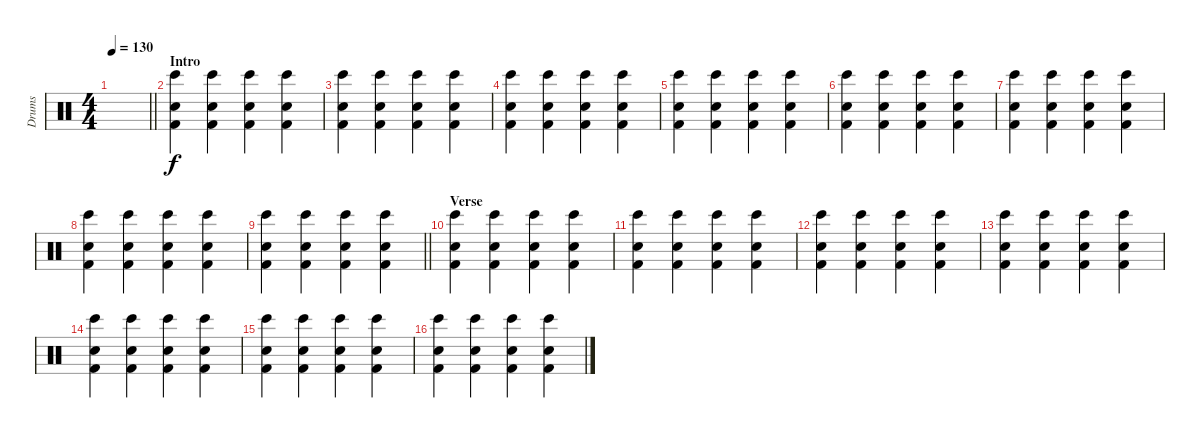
\track ("Drums" "Drums") {instrument percussion}
\staff {score}
\articulation defaults
\ts (4 4)
\tempo 130
\clef neutral
\barLineRight lightlight
\ks c
|
\section ("" "Intro")
("Electric Snare (hit)" "Kick (hit) 2" "Bongo High (hit)").4 ("Electric Snare (hit)" "Kick (hit) 2" "Bongo High (hit)").4 ("Electric Snare (hit)" "Kick (hit) 2" "Bongo High (hit)").4 ("Electric Snare (hit)" "Kick (hit) 2" "Bongo High (hit)").4 |
("Electric Snare (hit)" "Kick (hit) 2" "Bongo High (hit)").4 ("Electric Snare (hit)" "Kick (hit) 2" "Bongo High (hit)").4 ("Electric Snare (hit)" "Kick (hit) 2" "Bongo High (hit)").4 ("Electric Snare (hit)" "Kick (hit) 2" "Bongo High (hit)").4 |
("Electric Snare (hit)" "Kick (hit) 2" "Bongo High (hit)").4 ("Electric Snare (hit)" "Kick (hit) 2" "Bongo High (hit)").4 ("Electric Snare (hit)" "Kick (hit) 2" "Bongo High (hit)").4 ("Electric Snare (hit)" "Kick (hit) 2" "Bongo High (hit)").4 |
("Electric Snare (hit)" "Kick (hit) 2" "Bongo High (hit)").4 ("Electric Snare (hit)" "Kick (hit) 2" "Bongo High (hit)").4 ("Electric Snare (hit)" "Kick (hit) 2" "Bongo High (hit)").4 ("Electric Snare (hit)" "Kick (hit) 2" "Bongo High (hit)").4 |
("Electric Snare (hit)" "Kick (hit) 2" "Bongo High (hit)").4 ("Electric Snare (hit)" "Kick (hit) 2" "Bongo High (hit)").4 ("Electric Snare (hit)" "Kick (hit) 2" "Bongo High (hit)").4 ("Electric Snare (hit)" "Kick (hit) 2" "Bongo High (hit)").4 |
("Electric Snare (hit)" "Kick (hit) 2" "Bongo High (hit)").4 ("Electric Snare (hit)" "Kick (hit) 2" "Bongo High (hit)").4 ("Electric Snare (hit)" "Kick (hit) 2" "Bongo High (hit)").4 ("Electric Snare (hit)" "Kick (hit) 2" "Bongo High (hit)").4 |
("Electric Snare (hit)" "Kick (hit) 2" "Bongo High (hit)").4 ("Electric Snare (hit)" "Kick (hit) 2" "Bongo High (hit)").4 ("Electric Snare (hit)" "Kick (hit) 2" "Bongo High (hit)").4 ("Electric Snare (hit)" "Kick (hit) 2" "Bongo High (hit)").4 |
\barLineRight lightlight
("Electric Snare (hit)" "Kick (hit) 2" "Bongo High (hit)").4 ("Electric Snare (hit)" "Kick (hit) 2" "Bongo High (hit)").4 ("Electric Snare (hit)" "Kick (hit) 2" "Bongo High (hit)").4 ("Electric Snare (hit)" "Kick (hit) 2" "Bongo High (hit)").4 |
\section ("" "Verse")
("Electric Snare (hit)" "Kick (hit) 2" "Bongo High (hit)").4 ("Electric Snare (hit)" "Kick (hit) 2" "Bongo High (hit)").4 ("Electric Snare (hit)" "Kick (hit) 2" "Bongo High (hit)").4 ("Electric Snare (hit)" "Kick (hit) 2" "Bongo High (hit)").4 |
("Electric Snare (hit)" "Kick (hit) 2" "Bongo High (hit)").4 ("Electric Snare (hit)" "Kick (hit) 2" "Bongo High (hit)").4 ("Electric Snare (hit)" "Kick (hit) 2" "Bongo High (hit)").4 ("Electric Snare (hit)" "Kick (hit) 2" "Bongo High (hit)").4 |
("Electric Snare (hit)" "Kick (hit) 2" "Bongo High (hit)").4 ("Electric Snare (hit)" "Kick (hit) 2" "Bongo High (hit)").4 ("Electric Snare (hit)" "Kick (hit) 2" "Bongo High (hit)").4 ("Electric Snare (hit)" "Kick (hit) 2" "Bongo High (hit)").4 |
("Electric Snare (hit)" "Kick (hit) 2" "Bongo High (hit)").4 ("Electric Snare (hit)" "Kick (hit) 2" "Bongo High (hit)").4 ("Electric Snare (hit)" "Kick (hit) 2" "Bongo High (hit)").4 ("Electric Snare (hit)" "Kick (hit) 2" "Bongo High (hit)").4 |
("Electric Snare (hit)" "Kick (hit) 2" "Bongo High (hit)").4 ("Electric Snare (hit)" "Kick (hit) 2" "Bongo High (hit)").4 ("Electric Snare (hit)" "Kick (hit) 2" "Bongo High (hit)").4 ("Electric Snare (hit)" "Kick (hit) 2" "Bongo High (hit)").4 |
("Electric Snare (hit)" "Kick (hit) 2" "Bongo High (hit)").4 ("Electric Snare (hit)" "Kick (hit) 2" "Bongo High (hit)").4 ("Electric Snare (hit)" "Kick (hit) 2" "Bongo High (hit)").4 ("Electric Snare (hit)" "Kick (hit) 2" "Bongo High (hit)").4 |
("Electric Snare (hit)" "Kick (hit) 2" "Bongo High (hit)").4 ("Electric Snare (hit)" "Kick (hit) 2" "Bongo High (hit)").4 ("Electric Snare (hit)" "Kick (hit) 2" "Bongo High (hit)").4 ("Electric Snare (hit)" "Kick (hit) 2" "Bongo High (hit)").4
